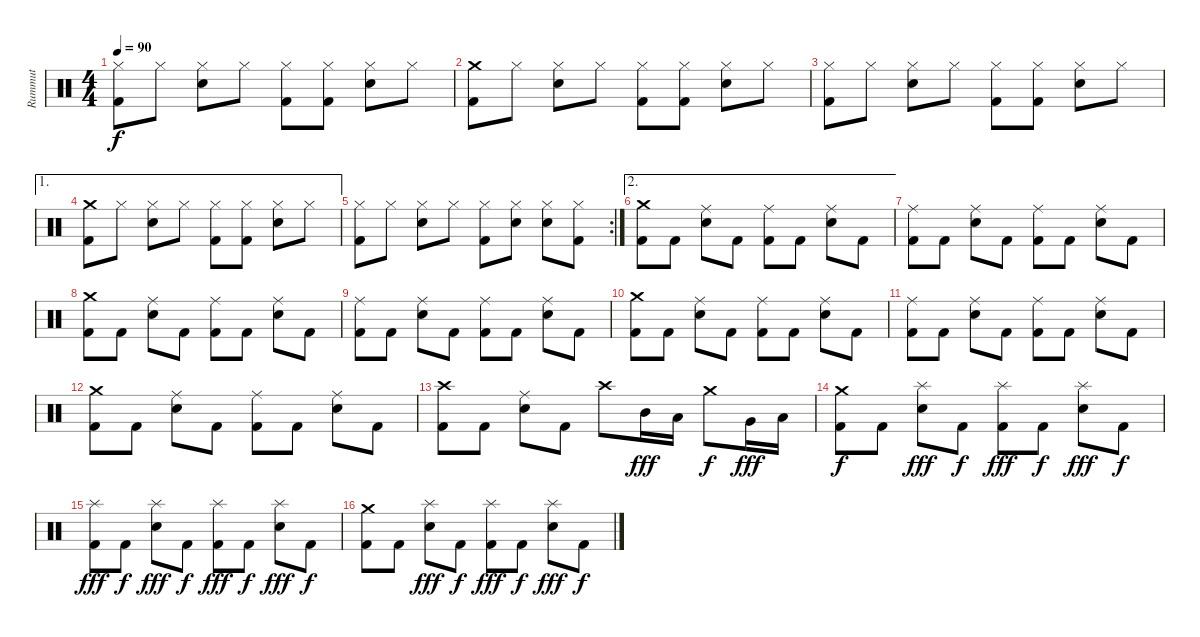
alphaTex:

\track ("Rummut" "Rummut") {instrument percussion}
\staff {score}
\articulation defaults
\ts (4 4)
\tempo 90
\clef neutral
\ks c
("Kick (hit) 2" "Hi-Hat (closed)").8{dy f} "Hi-Hat (closed)".8 ("Hi-Hat (closed)" "Snare (hit) 2").8 "Hi-Hat (closed)".8 ("Kick (hit) 2" "Hi-Hat (closed)").8 ("Kick (hit) 2" "Hi-Hat (closed)").8 ("Hi-Hat (closed)" "Snare (hit) 2").8 "Hi-Hat (closed)".8 |
("Kick (hit) 2" "Crash medium (hit)").8 "Hi-Hat (closed)".8 ("Hi-Hat (closed)" "Snare (hit) 2").8 "Hi-Hat (closed)".8 ("Kick (hit) 2" "Hi-Hat (closed)").8 ("Kick (hit) 2" "Hi-Hat (closed)").8 ("Hi-Hat (closed)" "Snare (hit) 2").8 "Hi-Hat (closed)".8 |
("Kick (hit) 2" "Hi-Hat (closed)").8 "Hi-Hat (closed)".8 ("Hi-Hat (closed)" "Snare (hit) 2").8 "Hi-Hat (closed)".8 ("Kick (hit) 2" "Hi-Hat (closed)").8 ("Kick (hit) 2" "Hi-Hat (closed)").8 ("Hi-Hat (closed)" "Snare (hit) 2").8 "Hi-Hat (closed)".8 |
\ae 1
("Kick (hit) 2" "Crash medium (hit)").8 "Hi-Hat (closed)".8 ("Hi-Hat (closed)" "Snare (hit) 2").8 "Hi-Hat (closed)".8 ("Kick (hit) 2" "Hi-Hat (closed)").8 ("Kick (hit) 2" "Hi-Hat (closed)").8 ("Hi-Hat (closed)" "Snare (hit) 2").8 "Hi-Hat (closed)".8 |
\rc 2
("Kick (hit) 2" "Hi-Hat (closed)").8 "Hi-Hat (closed)".8 ("Hi-Hat (closed)" "Snare (hit) 2").8 "Hi-Hat (closed)".8 ("Kick (hit) 2" "Hi-Hat (closed)").8 ("Hi-Hat (closed)" "Snare (hit) 2").8 ("Hi-Hat (closed)" "Snare (hit) 2").8 ("Kick (hit) 2" "Hi-Hat (closed)").8 |
\ae 2
("Kick (hit) 2" "Crash medium (hit)").8 "Kick (hit) 2".8 ("Ride (middle)" "Snare (hit) 2").8 "Kick (hit) 2".8 ("Kick (hit) 2" "Ride (middle)").8 "Kick (hit) 2".8 ("Ride (middle)" "Snare (hit) 2").8 "Kick (hit) 2".8 |
("Kick (hit) 2" "Ride (middle)").8 "Kick (hit) 2".8 ("Ride (middle)" "Snare (hit) 2").8 "Kick (hit) 2".8 ("Kick (hit) 2" "Ride (middle)").8 "Kick (hit) 2".8 ("Ride (middle)" "Snare (hit) 2").8 "Kick (hit) 2".8 |
("Kick (hit) 2" "Crash medium (hit)").8 "Kick (hit) 2".8 ("Ride (middle)" "Snare (hit) 2").8 "Kick (hit) 2".8 ("Kick (hit) 2" "Ride (middle)").8 "Kick (hit) 2".8 ("Ride (middle)" "Snare (hit) 2").8 "Kick (hit) 2".8 |
("Kick (hit) 2" "Ride (middle)").8 "Kick (hit) 2".8 ("Ride (middle)" "Snare (hit) 2").8 "Kick (hit) 2".8 ("Kick (hit) 2" "Ride (middle)").8 "Kick (hit) 2".8 ("Ride (middle)" "Snare (hit) 2").8 "Kick (hit) 2".8 |
("Kick (hit) 2" "Crash medium (hit)").8 "Kick (hit) 2".8 ("Ride (middle)" "Snare (hit) 2").8 "Kick (hit) 2".8 ("Kick (hit) 2" "Ride (middle)").8 "Kick (hit) 2".8 ("Ride (middle)" "Snare (hit) 2").8 "Kick (hit) 2".8 |
("Kick (hit) 2" "Ride (middle)").8 "Kick (hit) 2".8 ("Ride (middle)" "Snare (hit) 2").8 "Kick (hit) 2".8 ("Kick (hit) 2" "Ride (middle)").8 "Kick (hit) 2".8 ("Ride (middle)" "Snare (hit) 2").8 "Kick (hit) 2".8 |
("Kick (hit) 2" "Crash medium (hit)").8 "Kick (hit) 2".8 ("Ride (middle)" "Snare (hit) 2").8 "Kick (hit) 2".8 ("Kick (hit) 2" "Ride (middle)").8 "Kick (hit) 2".8 ("Ride (middle)" "Snare (hit) 2").8 "Kick (hit) 2".8 |
("Kick (hit) 2" "Crash high (hit)").8 "Kick (hit) 2".8 ("Ride (middle)" "Snare (hit) 2").8 "Kick (hit) 2".8 "Crash high (hit)".8 "Mid Tom (hit)".16{dy fff} "Low Tom (hit)".16 "Crash medium (hit)".8{dy f} "Very Low Tom (hit)".16{dy fff} "Low Floor Tom (hit)".16 |
("Kick (hit) 2" "Crash medium (hit)").8{dy f} "Kick (hit) 2".8 ("Splash (hit)" "Snare (hit) 2").8{dy fff} "Kick (hit) 2".8{dy f} ("Kick (hit) 2" "Splash (hit)").8{dy fff} "Kick (hit) 2".8{dy f} ("Splash (hit)" "Snare (hit) 2").8{dy fff} "Kick (hit) 2".8{dy f} |
("Kick (hit) 2" "Splash (hit)").8{dy fff} "Kick (hit) 2".8{dy f} ("Splash (hit)" "Snare (hit) 2").8{dy fff} "Kick (hit) 2".8{dy f} ("Kick (hit) 2" "Splash (hit)").8{dy fff} "Kick (hit) 2".8{dy f} ("Splash (hit)" "Snare (hit) 2").8{dy fff} "Kick (hit) 2".8{dy f} |
("Kick (hit) 2" "Crash medium (hit)").8 "Kick (hit) 2".8 ("Splash (hit)" "Snare (hit) 2").8{dy fff} "Kick (hit) 2".8{dy f} ("Kick (hit) 2" "Splash (hit)").8{dy fff} "Kick (hit) 2".8{dy f} ("Splash (hit)" "Snare (hit) 2").8{dy fff} "Kick (hit) 2".8{dy f}
